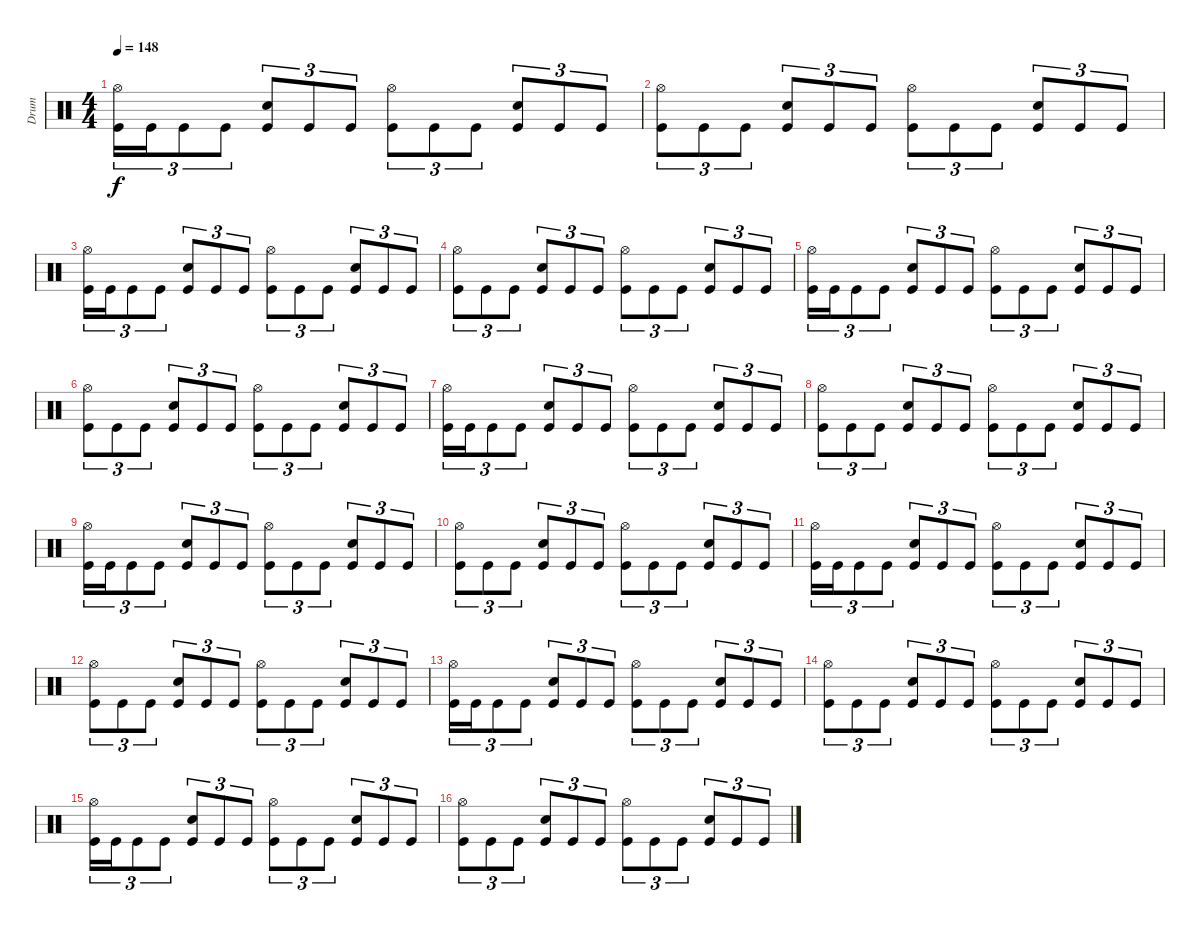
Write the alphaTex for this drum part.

\track ("Drum" "Drum") {instrument percussion}
\staff {score}
\articulation defaults
\ts (4 4)
\tempo 148
\clef neutral
\ks c
("Hi-Hat (open)" "Kick (hit)").16{tu (3 2) dy f} "Kick (hit)".16{tu (3 2)} "Kick (hit)".8{tu (3 2)} "Kick (hit)".8{tu (3 2)} ("Snare (hit) 2" "Kick (hit)").8{tu (3 2)} "Kick (hit)".8{tu (3 2)} "Kick (hit)".8{tu (3 2)} ("Hi-Hat (open)" "Kick (hit)").8{tu (3 2)} "Kick (hit)".8{tu (3 2)} "Kick (hit)".8{tu (3 2)} ("Snare (hit) 2" "Kick (hit)").8{tu (3 2)} "Kick (hit)".8{tu (3 2)} "Kick (hit)".8{tu (3 2)} |
("Hi-Hat (open)" "Kick (hit)").8{tu (3 2)} "Kick (hit)".8{tu (3 2)} "Kick (hit)".8{tu (3 2)} ("Snare (hit) 2" "Kick (hit)").8{tu (3 2)} "Kick (hit)".8{tu (3 2)} "Kick (hit)".8{tu (3 2)} ("Hi-Hat (open)" "Kick (hit)").8{tu (3 2)} "Kick (hit)".8{tu (3 2)} "Kick (hit)".8{tu (3 2)} ("Snare (hit) 2" "Kick (hit)").8{tu (3 2)} "Kick (hit)".8{tu (3 2)} "Kick (hit)".8{tu (3 2)} |
("Hi-Hat (open)" "Kick (hit)").16{tu (3 2)} "Kick (hit)".16{tu (3 2)} "Kick (hit)".8{tu (3 2)} "Kick (hit)".8{tu (3 2)} ("Snare (hit) 2" "Kick (hit)").8{tu (3 2)} "Kick (hit)".8{tu (3 2)} "Kick (hit)".8{tu (3 2)} ("Hi-Hat (open)" "Kick (hit)").8{tu (3 2)} "Kick (hit)".8{tu (3 2)} "Kick (hit)".8{tu (3 2)} ("Snare (hit) 2" "Kick (hit)").8{tu (3 2)} "Kick (hit)".8{tu (3 2)} "Kick (hit)".8{tu (3 2)} |
("Hi-Hat (open)" "Kick (hit)").8{tu (3 2)} "Kick (hit)".8{tu (3 2)} "Kick (hit)".8{tu (3 2)} ("Snare (hit) 2" "Kick (hit)").8{tu (3 2)} "Kick (hit)".8{tu (3 2)} "Kick (hit)".8{tu (3 2)} ("Hi-Hat (open)" "Kick (hit)").8{tu (3 2)} "Kick (hit)".8{tu (3 2)} "Kick (hit)".8{tu (3 2)} ("Snare (hit) 2" "Kick (hit)").8{tu (3 2)} "Kick (hit)".8{tu (3 2)} "Kick (hit)".8{tu (3 2)} |
("Hi-Hat (open)" "Kick (hit)").16{tu (3 2)} "Kick (hit)".16{tu (3 2)} "Kick (hit)".8{tu (3 2)} "Kick (hit)".8{tu (3 2)} ("Snare (hit) 2" "Kick (hit)").8{tu (3 2)} "Kick (hit)".8{tu (3 2)} "Kick (hit)".8{tu (3 2)} ("Hi-Hat (open)" "Kick (hit)").8{tu (3 2)} "Kick (hit)".8{tu (3 2)} "Kick (hit)".8{tu (3 2)} ("Snare (hit) 2" "Kick (hit)").8{tu (3 2)} "Kick (hit)".8{tu (3 2)} "Kick (hit)".8{tu (3 2)} |
("Hi-Hat (open)" "Kick (hit)").8{tu (3 2)} "Kick (hit)".8{tu (3 2)} "Kick (hit)".8{tu (3 2)} ("Snare (hit) 2" "Kick (hit)").8{tu (3 2)} "Kick (hit)".8{tu (3 2)} "Kick (hit)".8{tu (3 2)} ("Hi-Hat (open)" "Kick (hit)").8{tu (3 2)} "Kick (hit)".8{tu (3 2)} "Kick (hit)".8{tu (3 2)} ("Snare (hit) 2" "Kick (hit)").8{tu (3 2)} "Kick (hit)".8{tu (3 2)} "Kick (hit)".8{tu (3 2)} |
("Hi-Hat (open)" "Kick (hit)").16{tu (3 2)} "Kick (hit)".16{tu (3 2)} "Kick (hit)".8{tu (3 2)} "Kick (hit)".8{tu (3 2)} ("Snare (hit) 2" "Kick (hit)").8{tu (3 2)} "Kick (hit)".8{tu (3 2)} "Kick (hit)".8{tu (3 2)} ("Hi-Hat (open)" "Kick (hit)").8{tu (3 2)} "Kick (hit)".8{tu (3 2)} "Kick (hit)".8{tu (3 2)} ("Snare (hit) 2" "Kick (hit)").8{tu (3 2)} "Kick (hit)".8{tu (3 2)} "Kick (hit)".8{tu (3 2)} |
("Hi-Hat (open)" "Kick (hit)").8{tu (3 2)} "Kick (hit)".8{tu (3 2)} "Kick (hit)".8{tu (3 2)} ("Snare (hit) 2" "Kick (hit)").8{tu (3 2)} "Kick (hit)".8{tu (3 2)} "Kick (hit)".8{tu (3 2)} ("Hi-Hat (open)" "Kick (hit)").8{tu (3 2)} "Kick (hit)".8{tu (3 2)} "Kick (hit)".8{tu (3 2)} ("Snare (hit) 2" "Kick (hit)").8{tu (3 2)} "Kick (hit)".8{tu (3 2)} "Kick (hit)".8{tu (3 2)} |
("Hi-Hat (open)" "Kick (hit)").16{tu (3 2)} "Kick (hit)".16{tu (3 2)} "Kick (hit)".8{tu (3 2)} "Kick (hit)".8{tu (3 2)} ("Snare (hit) 2" "Kick (hit)").8{tu (3 2)} "Kick (hit)".8{tu (3 2)} "Kick (hit)".8{tu (3 2)} ("Hi-Hat (open)" "Kick (hit)").8{tu (3 2)} "Kick (hit)".8{tu (3 2)} "Kick (hit)".8{tu (3 2)} ("Snare (hit) 2" "Kick (hit)").8{tu (3 2)} "Kick (hit)".8{tu (3 2)} "Kick (hit)".8{tu (3 2)} |
("Hi-Hat (open)" "Kick (hit)").8{tu (3 2)} "Kick (hit)".8{tu (3 2)} "Kick (hit)".8{tu (3 2)} ("Snare (hit) 2" "Kick (hit)").8{tu (3 2)} "Kick (hit)".8{tu (3 2)} "Kick (hit)".8{tu (3 2)} ("Hi-Hat (open)" "Kick (hit)").8{tu (3 2)} "Kick (hit)".8{tu (3 2)} "Kick (hit)".8{tu (3 2)} ("Snare (hit) 2" "Kick (hit)").8{tu (3 2)} "Kick (hit)".8{tu (3 2)} "Kick (hit)".8{tu (3 2)} |
("Hi-Hat (open)" "Kick (hit)").16{tu (3 2)} "Kick (hit)".16{tu (3 2)} "Kick (hit)".8{tu (3 2)} "Kick (hit)".8{tu (3 2)} ("Snare (hit) 2" "Kick (hit)").8{tu (3 2)} "Kick (hit)".8{tu (3 2)} "Kick (hit)".8{tu (3 2)} ("Hi-Hat (open)" "Kick (hit)").8{tu (3 2)} "Kick (hit)".8{tu (3 2)} "Kick (hit)".8{tu (3 2)} ("Snare (hit) 2" "Kick (hit)").8{tu (3 2)} "Kick (hit)".8{tu (3 2)} "Kick (hit)".8{tu (3 2)} |
("Hi-Hat (open)" "Kick (hit)").8{tu (3 2)} "Kick (hit)".8{tu (3 2)} "Kick (hit)".8{tu (3 2)} ("Snare (hit) 2" "Kick (hit)").8{tu (3 2)} "Kick (hit)".8{tu (3 2)} "Kick (hit)".8{tu (3 2)} ("Hi-Hat (open)" "Kick (hit)").8{tu (3 2)} "Kick (hit)".8{tu (3 2)} "Kick (hit)".8{tu (3 2)} ("Snare (hit) 2" "Kick (hit)").8{tu (3 2)} "Kick (hit)".8{tu (3 2)} "Kick (hit)".8{tu (3 2)} |
("Hi-Hat (open)" "Kick (hit)").16{tu (3 2)} "Kick (hit)".16{tu (3 2)} "Kick (hit)".8{tu (3 2)} "Kick (hit)".8{tu (3 2)} ("Snare (hit) 2" "Kick (hit)").8{tu (3 2)} "Kick (hit)".8{tu (3 2)} "Kick (hit)".8{tu (3 2)} ("Hi-Hat (open)" "Kick (hit)").8{tu (3 2)} "Kick (hit)".8{tu (3 2)} "Kick (hit)".8{tu (3 2)} ("Snare (hit) 2" "Kick (hit)").8{tu (3 2)} "Kick (hit)".8{tu (3 2)} "Kick (hit)".8{tu (3 2)} |
("Hi-Hat (open)" "Kick (hit)").8{tu (3 2)} "Kick (hit)".8{tu (3 2)} "Kick (hit)".8{tu (3 2)} ("Snare (hit) 2" "Kick (hit)").8{tu (3 2)} "Kick (hit)".8{tu (3 2)} "Kick (hit)".8{tu (3 2)} ("Hi-Hat (open)" "Kick (hit)").8{tu (3 2)} "Kick (hit)".8{tu (3 2)} "Kick (hit)".8{tu (3 2)} ("Snare (hit) 2" "Kick (hit)").8{tu (3 2)} "Kick (hit)".8{tu (3 2)} "Kick (hit)".8{tu (3 2)} |
("Hi-Hat (open)" "Kick (hit)").16{tu (3 2)} "Kick (hit)".16{tu (3 2)} "Kick (hit)".8{tu (3 2)} "Kick (hit)".8{tu (3 2)} ("Snare (hit) 2" "Kick (hit)").8{tu (3 2)} "Kick (hit)".8{tu (3 2)} "Kick (hit)".8{tu (3 2)} ("Hi-Hat (open)" "Kick (hit)").8{tu (3 2)} "Kick (hit)".8{tu (3 2)} "Kick (hit)".8{tu (3 2)} ("Snare (hit) 2" "Kick (hit)").8{tu (3 2)} "Kick (hit)".8{tu (3 2)} "Kick (hit)".8{tu (3 2)} |
("Hi-Hat (open)" "Kick (hit)").8{tu (3 2)} "Kick (hit)".8{tu (3 2)} "Kick (hit)".8{tu (3 2)} ("Snare (hit) 2" "Kick (hit)").8{tu (3 2)} "Kick (hit)".8{tu (3 2)} "Kick (hit)".8{tu (3 2)} ("Hi-Hat (open)" "Kick (hit)").8{tu (3 2)} "Kick (hit)".8{tu (3 2)} "Kick (hit)".8{tu (3 2)} ("Snare (hit) 2" "Kick (hit)").8{tu (3 2)} "Kick (hit)".8{tu (3 2)} "Kick (hit)".8{tu (3 2)}
